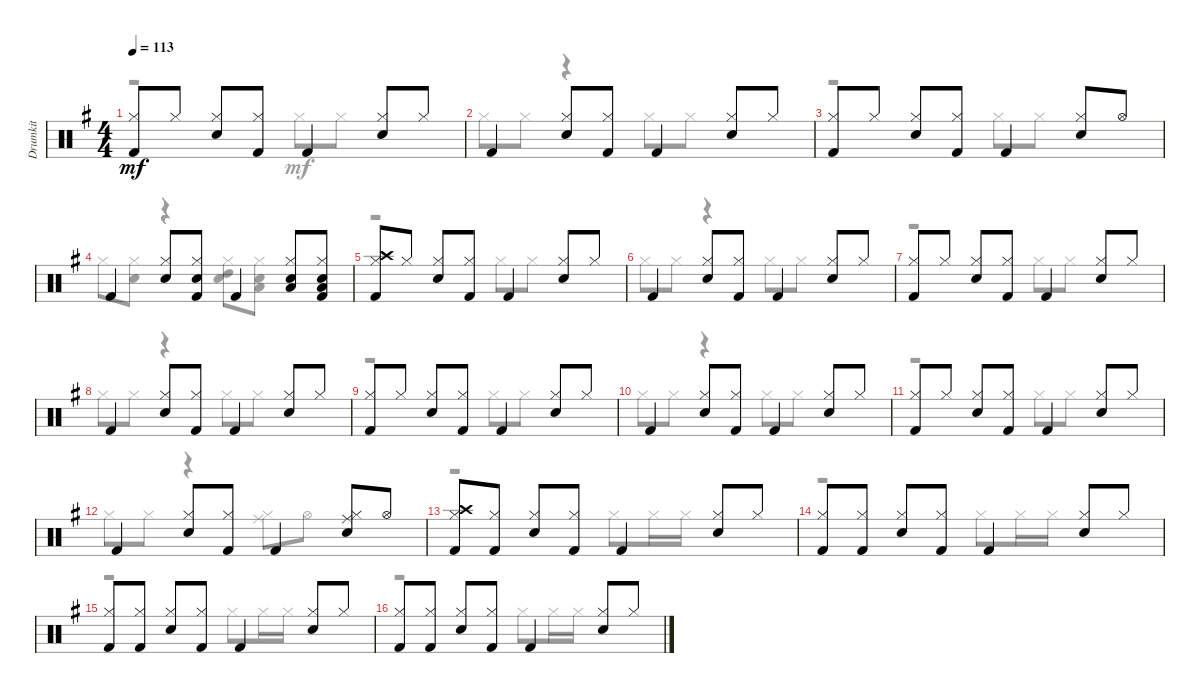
\track ("Drumkit" "Drumkit") {instrument percussion}
\staff {score}
\articulation defaults
\voice
\ts (4 4)
\tempo 113
\clef neutral
\ks eminor
("Kick (hit) 2" "Hi-Hat (closed)").8{dy mf} "Hi-Hat (closed)".8 ("Hi-Hat (closed)" "Snare (hit) 2").8 ("Kick (hit) 2" "Hi-Hat (closed)").8 "Kick (hit) 2".4 ("Snare (hit) 2" "Hi-Hat (closed)").8 "Hi-Hat (closed)".8 |
"Kick (hit) 2".4 ("Snare (hit) 2" "Hi-Hat (closed)").8 ("Kick (hit) 2" "Hi-Hat (closed)").8 "Kick (hit) 2".4 ("Hi-Hat (closed)" "Snare (hit) 2").8 "Hi-Hat (closed)".8 |
("Kick (hit) 2" "Hi-Hat (closed)").8 "Hi-Hat (closed)".8 ("Snare (hit) 2" "Hi-Hat (closed)").8 ("Hi-Hat (closed)" "Kick (hit) 2").8 "Kick (hit) 2".4 ("Snare (hit) 2" "Hi-Hat (closed)").8 "Hi-Hat (open)".8 |
"Kick (hit) 2".4 ("Hi-Hat (closed)" "Snare (hit) 2").8 ("Hi-Hat (closed)" "Kick (hit) 2" "Snare (hit) 2").8 "Kick (hit) 2".4 ("Low Tom (hit)" "Snare (hit) 2" "Hi-Hat (closed)").8 ("Hi-Hat (closed)" "Kick (hit) 2" "Low Floor Tom (hit)" "Snare (hit) 2").8 |
("Hi-Hat (closed)" "Crash high (hit)" "Kick (hit) 2").8 "Hi-Hat (closed)".8 ("Hi-Hat (closed)" "Snare (hit) 2").8 ("Kick (hit) 2" "Hi-Hat (closed)").8 "Kick (hit) 2".4 ("Hi-Hat (closed)" "Snare (hit) 2").8 "Hi-Hat (closed)".8 |
"Kick (hit) 2".4 ("Hi-Hat (closed)" "Snare (hit) 2").8 ("Kick (hit) 2" "Hi-Hat (closed)").8 "Kick (hit) 2".4 ("Hi-Hat (closed)" "Snare (hit) 2").8 "Hi-Hat (closed)".8 |
("Kick (hit) 2" "Hi-Hat (closed)").8 "Hi-Hat (closed)".8 ("Snare (hit) 2" "Hi-Hat (closed)").8 ("Hi-Hat (closed)" "Kick (hit) 2").8 "Kick (hit) 2".4 ("Hi-Hat (closed)" "Snare (hit) 2").8 "Hi-Hat (closed)".8 |
"Kick (hit) 2".4 ("Hi-Hat (closed)" "Snare (hit) 2").8 ("Hi-Hat (closed)" "Kick (hit) 2").8 "Kick (hit) 2".4 ("Snare (hit) 2" "Hi-Hat (closed)").8 "Hi-Hat (closed)".8 |
("Kick (hit) 2" "Hi-Hat (closed)").8 "Hi-Hat (closed)".8 ("Hi-Hat (closed)" "Snare (hit) 2").8 ("Hi-Hat (closed)" "Kick (hit) 2").8 "Kick (hit) 2".4 ("Snare (hit) 2" "Hi-Hat (closed)").8 "Hi-Hat (closed)".8 |
"Kick (hit) 2".4 ("Hi-Hat (closed)" "Snare (hit) 2").8 ("Kick (hit) 2" "Hi-Hat (closed)").8 "Kick (hit) 2".4 ("Hi-Hat (closed)" "Snare (hit) 2").8 "Hi-Hat (closed)".8 |
("Hi-Hat (closed)" "Kick (hit) 2").8 "Hi-Hat (closed)".8 ("Snare (hit) 2" "Hi-Hat (closed)").8 ("Hi-Hat (closed)" "Kick (hit) 2").8 "Kick (hit) 2".4 ("Snare (hit) 2" "Hi-Hat (closed)").8 "Hi-Hat (closed)".8 |
"Kick (hit) 2".4 ("Snare (hit) 2" "Hi-Hat (closed)").8 ("Kick (hit) 2" "Hi-Hat (closed)").8 "Kick (hit) 2".4 ("Hi-Hat (closed)" "Snare (hit) 2" "Ride (middle)").8 "Hi-Hat (open)".8 |
("Crash high (hit)" "Kick (hit) 2" "Hi-Hat (closed)").8 ("Hi-Hat (closed)" "Kick (hit) 2").8 ("Hi-Hat (closed)" "Snare (hit) 2").8 ("Kick (hit) 2" "Hi-Hat (closed)").8 "Kick (hit) 2".4 ("Snare (hit) 2" "Hi-Hat (closed)").8 "Hi-Hat (closed)".8 |
("Hi-Hat (closed)" "Kick (hit) 2").8 ("Hi-Hat (closed)" "Kick (hit) 2").8 ("Hi-Hat (closed)" "Snare (hit) 2").8 ("Hi-Hat (closed)" "Kick (hit) 2").8 "Kick (hit) 2".4 ("Hi-Hat (closed)" "Snare (hit) 2").8 "Hi-Hat (closed)".8 |
("Hi-Hat (closed)" "Kick (hit) 2").8 ("Kick (hit) 2" "Hi-Hat (closed)").8 ("Hi-Hat (closed)" "Snare (hit) 2").8 ("Hi-Hat (closed)" "Kick (hit) 2").8 "Kick (hit) 2".4 ("Hi-Hat (closed)" "Snare (hit) 2").8 "Hi-Hat (closed)".8 |
("Hi-Hat (closed)" "Kick (hit) 2").8 ("Hi-Hat (closed)" "Kick (hit) 2").8 ("Snare (hit) 2" "Hi-Hat (closed)").8 ("Kick (hit) 2" "Hi-Hat (closed)").8 "Kick (hit) 2".4 ("Hi-Hat (closed)" "Snare (hit) 2").8 "Hi-Hat (closed)".8
\voice
\clef neutral
\ottava regular
\simile none
\ks eminor
r.2{dy mf} "Hi-Hat (closed)".8 "Hi-Hat (closed)".8 |
"Hi-Hat (closed)".8 "Hi-Hat (closed)".8 r.4 "Hi-Hat (closed)".8 "Hi-Hat (closed)".8 |
r.2 "Hi-Hat (closed)".8 "Hi-Hat (closed)".8 |
"Hi-Hat (closed)".8 ("Snare (hit) 2" "Hi-Hat (closed)").8 r.4 ("Snare (hit) 2" "Hi-Hat (closed)" "High Tom (hit)").8 ("Snare (hit) 2" "Hi-Hat (closed)" "Low Tom (hit)").8 |
r.2 "Hi-Hat (closed)".8 "Hi-Hat (closed)".8 |
"Hi-Hat (closed)".8 "Hi-Hat (closed)".8 r.4 "Hi-Hat (closed)".8 "Hi-Hat (closed)".8 |
r.2 "Hi-Hat (closed)".8 "Hi-Hat (closed)".8 |
"Hi-Hat (closed)".8 "Hi-Hat (closed)".8 r.4 "Hi-Hat (closed)".8 "Hi-Hat (closed)".8 |
r.2 "Hi-Hat (closed)".8 "Hi-Hat (closed)".8 |
"Hi-Hat (closed)".8 "Hi-Hat (closed)".8 r.4 "Hi-Hat (closed)".8 "Hi-Hat (closed)".8 |
r.2 "Hi-Hat (closed)".8 "Hi-Hat (closed)".8 |
"Hi-Hat (closed)".8 "Hi-Hat (closed)".8 r.4 ("Hi-Hat (closed)" "Ride (middle)").8 "Hi-Hat (open)".8 |
r.2 "Hi-Hat (closed)".8 "Hi-Hat (closed)".16 "Hi-Hat (closed)".16 |
r.2 "Hi-Hat (closed)".8 "Hi-Hat (closed)".16 "Hi-Hat (closed)".16 |
r.2 "Hi-Hat (closed)".8 "Hi-Hat (closed)".16 "Hi-Hat (closed)".16 |
r.2 "Hi-Hat (closed)".8 "Hi-Hat (closed)".16 "Hi-Hat (closed)".16
